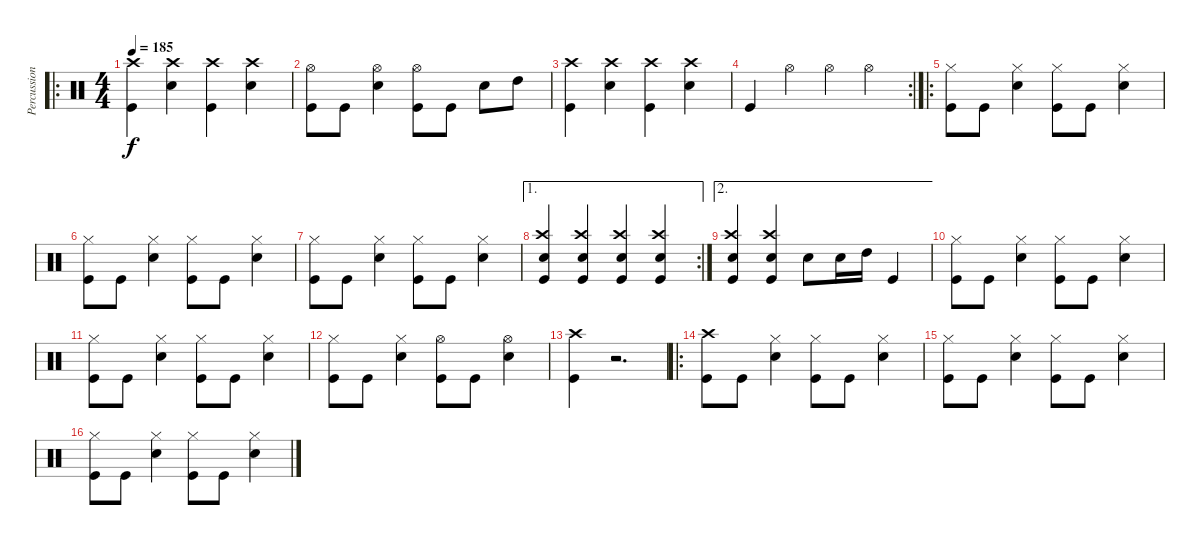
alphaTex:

\track ("Percussion" "Percussion") {instrument percussion}
\staff {score}
\articulation defaults
\ro
\ts (4 4)
\tempo 185
\clef neutral
\ks c
("Kick (hit)" "Crash high (hit)").4{dy f} ("Crash high (hit)" "Snare (hit) 2").4 ("Crash high (hit)" "Kick (hit)").4 ("Crash high (hit)" "Snare (hit) 2").4 |
("Hi-Hat (open)" "Kick (hit)").8 "Kick (hit)".8 ("Hi-Hat (open)" "Snare (hit) 2").4 ("Hi-Hat (open)" "Kick (hit)").8 "Kick (hit)".8 "Snare (hit) 2".8 "High Tom (hit)".8 |
("Kick (hit)" "Crash high (hit)").4 ("Crash high (hit)" "Snare (hit) 2").4 ("Crash high (hit)" "Kick (hit)").4 ("Crash high (hit)" "Snare (hit) 2").4 |
\rc 2 "Kick (hit)".4 "Hi-Hat (open)".4 "Hi-Hat (open)".4 "Hi-Hat (open)".4
|
\ro
("Hi-Hat (closed)" "Kick (hit)").8 "Kick (hit)".8 ("Hi-Hat (closed)" "Snare (hit) 2").4 ("Hi-Hat (closed)" "Kick (hit)").8 "Kick (hit)".8 ("Hi-Hat (closed)" "Snare (hit) 2").4 |
("Hi-Hat (closed)" "Kick (hit)").8 "Kick (hit)".8 ("Hi-Hat (closed)" "Snare (hit) 2").4 ("Hi-Hat (closed)" "Kick (hit)").8 "Kick (hit)".8 ("Hi-Hat (closed)" "Snare (hit) 2").4 |
("Hi-Hat (closed)" "Kick (hit)").8 "Kick (hit)".8 ("Hi-Hat (closed)" "Snare (hit) 2").4 ("Hi-Hat (closed)" "Kick (hit)").8 "Kick (hit)".8 ("Hi-Hat (closed)" "Snare (hit) 2").4 |
\ae 1
\rc 2
("Crash high (hit)" "Snare (hit) 2" "Kick (hit)").4 ("Crash high (hit)" "Snare (hit) 2" "Kick (hit)").4 ("Crash high (hit)" "Snare (hit) 2" "Kick (hit)").4 ("Crash high (hit)" "Snare (hit) 2" "Kick (hit)").4 |
\ae 2
("Crash high (hit)" "Snare (hit) 2" "Kick (hit)").4 ("Crash high (hit)" "Snare (hit) 2" "Kick (hit)").4 "Snare (hit) 2".8 "Snare (hit) 2".16 "High Tom (hit)".16 "Kick (hit)".4 |
("Hi-Hat (closed)" "Kick (hit)").8 "Kick (hit)".8 ("Hi-Hat (closed)" "Snare (hit) 2").4 ("Hi-Hat (closed)" "Kick (hit)").8 "Kick (hit)".8 ("Hi-Hat (closed)" "Snare (hit) 2").4 |
("Hi-Hat (closed)" "Kick (hit)").8 "Kick (hit)".8 ("Hi-Hat (closed)" "Snare (hit) 2").4 ("Hi-Hat (closed)" "Kick (hit)").8 "Kick (hit)".8 ("Hi-Hat (closed)" "Snare (hit) 2").4 |
("Hi-Hat (closed)" "Kick (hit)").8 "Kick (hit)".8 ("Hi-Hat (closed)" "Snare (hit) 2").4 ("Hi-Hat (open)" "Kick (hit)").8 "Kick (hit)".8 ("Hi-Hat (open)" "Snare (hit) 2").4 |
("Crash high (hit)" "Kick (hit)").4 r.2{d} |
\ro
("Kick (hit)" "Crash high (hit)").8 "Kick (hit)".8 ("Hi-Hat (closed)" "Snare (hit) 2").4 ("Hi-Hat (closed)" "Kick (hit)").8 "Kick (hit)".8 ("Hi-Hat (closed)" "Snare (hit) 2").4 |
("Hi-Hat (closed)" "Kick (hit)").8 "Kick (hit)".8 ("Hi-Hat (closed)" "Snare (hit) 2").4 ("Hi-Hat (closed)" "Kick (hit)").8 "Kick (hit)".8 ("Hi-Hat (closed)" "Snare (hit) 2").4 |
("Hi-Hat (closed)" "Kick (hit)").8 "Kick (hit)".8 ("Hi-Hat (closed)" "Snare (hit) 2").4 ("Hi-Hat (closed)" "Kick (hit)").8 "Kick (hit)".8 ("Hi-Hat (closed)" "Snare (hit) 2").4
